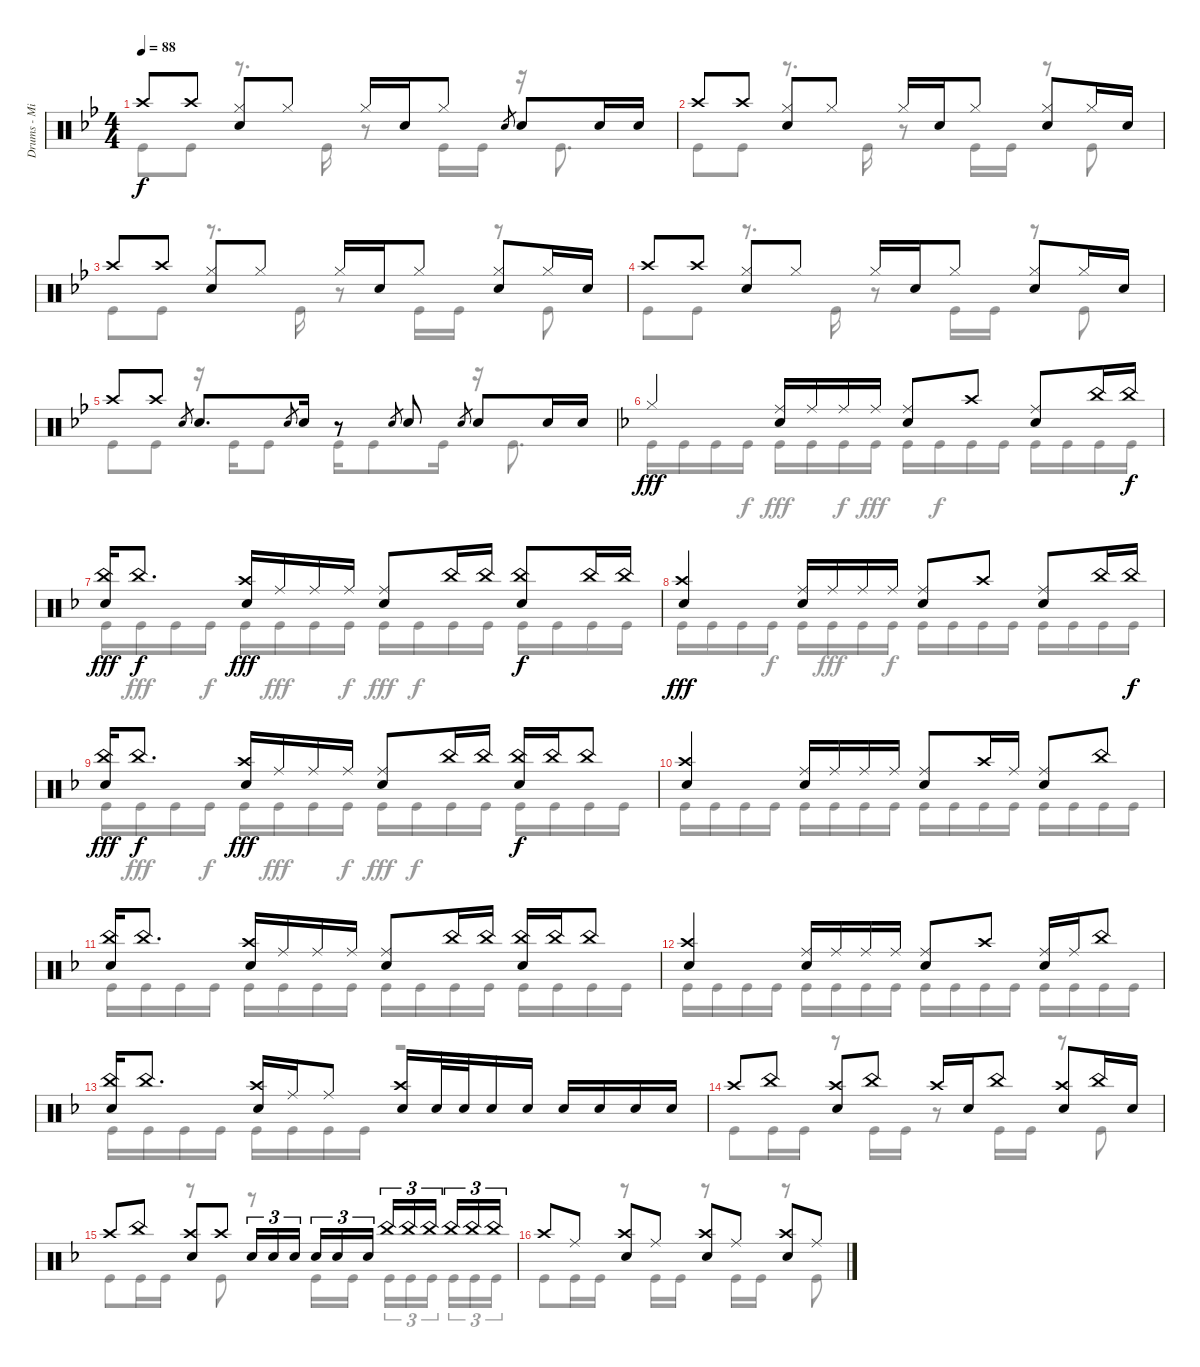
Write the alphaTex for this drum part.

\track ("Drums - Mike Portnoy" "Drums - Mi") {instrument percussion}
\staff {score}
\articulation defaults
\voice
\ts (4 4)
\tempo 88
\clef neutral
\ks bb "Crash high (hit)".8{dy f} "Crash high (hit)".8
("Hi-Hat (closed)" "Snare (hit) 2").8 "Hi-Hat (closed)".8 "Hi-Hat (closed)".16 "Snare (hit) 2".16 "Hi-Hat (closed)".8 "Snare (hit) 2".8{gr} "Snare (hit) 2".8 "Snare (hit) 2".16 "Snare (hit) 2".16 |
"Crash high (hit)".8 "Crash high (hit)".8 ("Hi-Hat (closed)" "Snare (hit) 2").8 "Hi-Hat (closed)".8 "Hi-Hat (closed)".16 "Snare (hit) 2".16 "Hi-Hat (closed)".8 ("Hi-Hat (closed)" "Snare (hit) 2").8 "Hi-Hat (closed)".16 "Snare (hit) 2".16 |
"Crash high (hit)".8 "Crash high (hit)".8 ("Hi-Hat (closed)" "Snare (hit) 2").8 "Hi-Hat (closed)".8 "Hi-Hat (closed)".16 "Snare (hit) 2".16 "Hi-Hat (closed)".8 ("Hi-Hat (closed)" "Snare (hit) 2").8 "Hi-Hat (closed)".16 "Snare (hit) 2".16 |
"Crash high (hit)".8 "Crash high (hit)".8 ("Hi-Hat (closed)" "Snare (hit) 2").8 "Hi-Hat (closed)".8 "Hi-Hat (closed)".16 "Snare (hit) 2".16 "Hi-Hat (closed)".8 ("Hi-Hat (closed)" "Snare (hit) 2").8 "Hi-Hat (closed)".16 "Snare (hit) 2".16 |
"Crash high (hit)".8 "Crash high (hit)".8 "Snare (hit) 2".8{gr} "Snare (hit) 2".8{d} "Snare (hit) 2".8{gr} "Snare (hit) 2".16 r.8 "Snare (hit) 2".8{gr} "Snare (hit) 2".8 "Snare (hit) 2".8{gr} "Snare (hit) 2".8 "Snare (hit) 2".16 "Snare (hit) 2".16 |
\ks f "Hi-Hat (closed)".4{dy fff}
("Ride (middle)" "Snare (hit) 2").16 "Ride (middle)".16 "Ride (middle)".16 "Ride (middle)".16 ("Ride (middle)" "Snare (hit) 2").8 "Crash high (hit)".8 ("Ride (middle)" "Snare (hit) 2").8 "China (hit)".16 "China (hit)".16{dy f} |
("China (hit)" "Snare (hit) 2").16{dy fff} "China (hit)".8{d dy f} ("Crash high (hit)" "Snare (hit) 2").16{dy fff} "Ride (middle)".16 "Ride (middle)".16 "Ride (middle)".16 ("Ride (middle)" "Snare (hit) 2").8 "China (hit)".16 "China (hit)".16 ("China (hit)" "Snare (hit) 2").8{dy f} "China (hit)".16 "China (hit)".16 |
("Crash high (hit)" "Snare (hit) 2").4{dy fff} ("Ride (middle)" "Snare (hit) 2").16 "Ride (middle)".16 "Ride (middle)".16 "Ride (middle)".16 ("Ride (middle)" "Snare (hit) 2").8 "Crash high (hit)".8 ("Ride (middle)" "Snare (hit) 2").8 "China (hit)".16 "China (hit)".16{dy f} |
("China (hit)" "Snare (hit) 2").16{dy fff} "China (hit)".8{d dy f} ("Crash high (hit)" "Snare (hit) 2").16{dy fff} "Ride (middle)".16 "Ride (middle)".16 "Ride (middle)".16 ("Ride (middle)" "Snare (hit) 2").8 "China (hit)".16 "China (hit)".16 ("China (hit)" "Snare (hit) 2").16{dy f} "China (hit)".16 "China (hit)".8 |
("Crash high (hit)" "Snare (hit) 2").4 ("Ride (middle)" "Snare (hit) 2").16 "Ride (middle)".16 "Ride (middle)".16 "Ride (middle)".16 ("Ride (middle)" "Snare (hit) 2").8 "Crash high (hit)".16 "Ride (middle)".16 ("Ride (middle)" "Snare (hit) 2").8 "China (hit)".8 |
("China (hit)" "Snare (hit) 2").16 "China (hit)".8{d} ("Crash high (hit)" "Snare (hit) 2").16 "Ride (middle)".16 "Ride (middle)".16 "Ride (middle)".16 ("Ride (middle)" "Snare (hit) 2").8 "China (hit)".16 "China (hit)".16 ("China (hit)" "Snare (hit) 2").16 "China (hit)".16 "China (hit)".8 |
("Crash high (hit)" "Snare (hit) 2").4 ("Ride (middle)" "Snare (hit) 2").16 "Ride (middle)".16 "Ride (middle)".16 "Ride (middle)".16 ("Ride (middle)" "Snare (hit) 2").8 "Crash high (hit)".8 ("Ride (middle)" "Snare (hit) 2").16 "Ride (middle)".16 "China (hit)".8 |
("China (hit)" "Snare (hit) 2").16 "China (hit)".8{d} ("Crash high (hit)" "Snare (hit) 2").16 "Ride (middle)".16 "Ride (middle)".8 ("Crash high (hit)" "Snare (hit) 2").16 "Snare (hit) 2".32 "Snare (hit) 2".32 "Snare (hit) 2".16 "Snare (hit) 2".16 "Snare (hit) 2".16 "Snare (hit) 2".16 "Snare (hit) 2".16 "Snare (hit) 2".16 |
"Crash high (hit)".8 "China (hit)".8 ("Crash high (hit)" "Snare (hit) 2").8 "China (hit)".8 "Crash high (hit)".16 "Snare (hit) 2".16 "China (hit)".8 ("Crash high (hit)" "Snare (hit) 2").8 "China (hit)".16 "Snare (hit) 2".16 |
"Crash high (hit)".8 "China (hit)".8 ("Crash high (hit)" "Snare (hit) 2").8 "Crash high (hit)".8 "Snare (hit) 2".16{tu (3 2)} "Snare (hit) 2".16{tu (3 2)} "Snare (hit) 2".16{tu (3 2) beam splitsecondary} "Snare (hit) 2".16{tu (3 2)} "Snare (hit) 2".16{tu (3 2)} "Snare (hit) 2".16{tu (3 2)} "China (hit)".16{tu (3 2)} "China (hit)".16{tu (3 2)} "China (hit)".16{tu (3 2) beam splitsecondary} "China (hit)".16{tu (3 2)} "China (hit)".16{tu (3 2)} "China (hit)".16{tu (3 2)} |
"Crash high (hit)".8 "Ride (middle)".8 ("Crash high (hit)" "Snare (hit) 2").8 "Ride (middle)".8 ("Crash high (hit)" "Snare (hit) 2").8 "Ride (middle)".8 ("Crash high (hit)" "Snare (hit) 2").8 "Ride (middle)".8
\voice
\clef neutral
\ottava regular
\simile none
\ks bb "Kick (hit)".8{dy f} "Kick (hit)".8
r.8{d} "Kick (hit)".16 r.8 "Kick (hit)".16 "Kick (hit)".16 r.16 "Kick (hit)".8{d} |
"Kick (hit)".8 "Kick (hit)".8 r.8{d} "Kick (hit)".16 r.8 "Kick (hit)".16 "Kick (hit)".16 r.8 "Kick (hit)".8 |
"Kick (hit)".8 "Kick (hit)".8 r.8{d} "Kick (hit)".16 r.8 "Kick (hit)".16 "Kick (hit)".16 r.8 "Kick (hit)".8 |
"Kick (hit)".8 "Kick (hit)".8 r.8{d} "Kick (hit)".16 r.8 "Kick (hit)".16 "Kick (hit)".16 r.8 "Kick (hit)".8 |
"Kick (hit)".8 "Kick (hit)".8 r.16 "Kick (hit)".16 "Kick (hit)".8 "Kick (hit)".16 "Kick (hit)".8 "Kick (hit)".16 r.16 "Kick (hit)".8{d} |
\ks f "Kick (hit)".16{dy fff} "Kick (hit)".16 "Kick (hit)".16 "Kick (hit)".16{dy f} "Kick (hit)".16{dy fff} "Kick (hit)".16 "Kick (hit)".16{dy f} "Kick (hit)".16{dy fff} "Kick (hit)".16 "Kick (hit)".16{dy f} "Kick (hit)".16 "Kick (hit)".16 "Kick (hit)".16 "Kick (hit)".16 "Kick (hit)".16 "Kick (hit)".16
|
"Kick (hit)".16 "Kick (hit)".16{dy fff} "Kick (hit)".16 "Kick (hit)".16{dy f} "Kick (hit)".16 "Kick (hit)".16{dy fff} "Kick (hit)".16 "Kick (hit)".16{dy f} "Kick (hit)".16{dy fff} "Kick (hit)".16{dy f} "Kick (hit)".16 "Kick (hit)".16 "Kick (hit)".16 "Kick (hit)".16 "Kick (hit)".16 "Kick (hit)".16 |
"Kick (hit)".16{dy fff} "Kick (hit)".16 "Kick (hit)".16 "Kick (hit)".16{dy f} "Kick (hit)".16 "Kick (hit)".16{dy fff} "Kick (hit)".16 "Kick (hit)".16{dy f} "Kick (hit)".16 "Kick (hit)".16 "Kick (hit)".16 "Kick (hit)".16 "Kick (hit)".16 "Kick (hit)".16 "Kick (hit)".16 "Kick (hit)".16 |
"Kick (hit)".16 "Kick (hit)".16{dy fff} "Kick (hit)".16 "Kick (hit)".16{dy f} "Kick (hit)".16 "Kick (hit)".16{dy fff} "Kick (hit)".16 "Kick (hit)".16{dy f} "Kick (hit)".16{dy fff} "Kick (hit)".16{dy f} "Kick (hit)".16 "Kick (hit)".16 "Kick (hit)".16 "Kick (hit)".16 "Kick (hit)".16 "Kick (hit)".16 |
"Kick (hit)".16 "Kick (hit)".16 "Kick (hit)".16 "Kick (hit)".16 "Kick (hit)".16 "Kick (hit)".16 "Kick (hit)".16 "Kick (hit)".16 "Kick (hit)".16 "Kick (hit)".16 "Kick (hit)".16 "Kick (hit)".16 "Kick (hit)".16 "Kick (hit)".16 "Kick (hit)".16 "Kick (hit)".16 |
"Kick (hit)".16 "Kick (hit)".16 "Kick (hit)".16 "Kick (hit)".16 "Kick (hit)".16 "Kick (hit)".16 "Kick (hit)".16 "Kick (hit)".16 "Kick (hit)".16 "Kick (hit)".16 "Kick (hit)".16 "Kick (hit)".16 "Kick (hit)".16 "Kick (hit)".16 "Kick (hit)".16 "Kick (hit)".16 |
"Kick (hit)".16 "Kick (hit)".16 "Kick (hit)".16 "Kick (hit)".16 "Kick (hit)".16 "Kick (hit)".16 "Kick (hit)".16 "Kick (hit)".16 "Kick (hit)".16 "Kick (hit)".16 "Kick (hit)".16 "Kick (hit)".16 "Kick (hit)".16 "Kick (hit)".16 "Kick (hit)".16 "Kick (hit)".16 |
"Kick (hit)".16 "Kick (hit)".16 "Kick (hit)".16 "Kick (hit)".16 "Kick (hit)".16 "Kick (hit)".16 "Kick (hit)".16 "Kick (hit)".16 r.2 |
"Kick (hit)".8 "Kick (hit)".16 "Kick (hit)".16 r.8 "Kick (hit)".16 "Kick (hit)".16 r.8 "Kick (hit)".16 "Kick (hit)".16 r.8 "Kick (hit)".8 |
"Kick (hit)".8 "Kick (hit)".16 "Kick (hit)".16 r.8 "Kick (hit)".8 r.8 "Kick (hit)".16 "Kick (hit)".16 "Kick (hit)".16{tu (3 2)} "Kick (hit)".16{tu (3 2)} "Kick (hit)".16{tu (3 2) beam splitsecondary} "Kick (hit)".16{tu (3 2)} "Kick (hit)".16{tu (3 2)} "Kick (hit)".16{tu (3 2)} |
"Kick (hit)".8 "Kick (hit)".16 "Kick (hit)".16 r.8 "Kick (hit)".16 "Kick (hit)".16 r.8 "Kick (hit)".16 "Kick (hit)".16 r.8 "Kick (hit)".8
